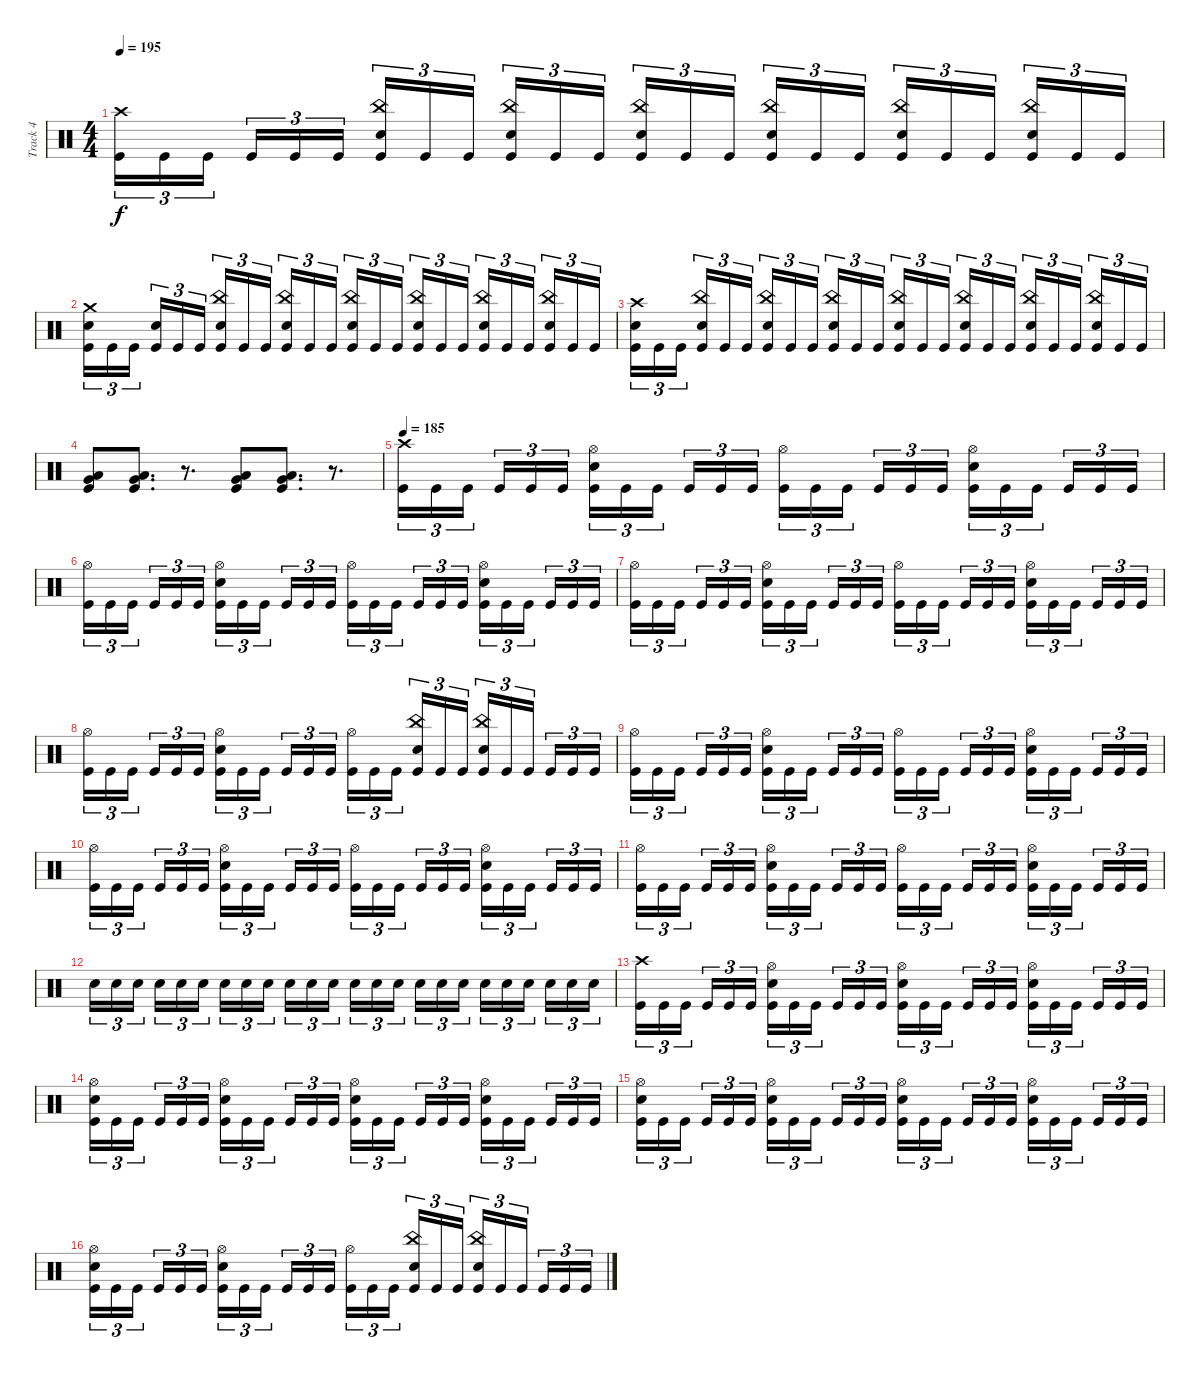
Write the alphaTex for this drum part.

\track ("Track 4" "Track 4") {instrument percussion}
\staff {score}
\articulation defaults
\ts (4 4)
\tempo 195
\clef neutral
\ks c
("Crash high (hit)" "Kick (hit)").16{tu (3 2) dy f} "Kick (hit)".16{tu (3 2)} "Kick (hit)".16{tu (3 2)} "Kick (hit)".16{tu (3 2)} "Kick (hit)".16{tu (3 2)} "Kick (hit)".16{tu (3 2)} ("China (hit)" "Electric Snare (hit)" "Kick (hit)").16{tu (3 2)} "Kick (hit)".16{tu (3 2)} "Kick (hit)".16{tu (3 2)} ("China (hit)" "Electric Snare (hit)" "Kick (hit)").16{tu (3 2)} "Kick (hit)".16{tu (3 2)} "Kick (hit)".16{tu (3 2)} ("China (hit)" "Electric Snare (hit)" "Kick (hit)").16{tu (3 2)} "Kick (hit)".16{tu (3 2)} "Kick (hit)".16{tu (3 2)} ("China (hit)" "Electric Snare (hit)" "Kick (hit)").16{tu (3 2)} "Kick (hit)".16{tu (3 2)} "Kick (hit)".16{tu (3 2)} ("China (hit)" "Electric Snare (hit)" "Kick (hit)").16{tu (3 2)} "Kick (hit)".16{tu (3 2)} "Kick (hit)".16{tu (3 2)} ("China (hit)" "Electric Snare (hit)" "Kick (hit)").16{tu (3 2)} "Kick (hit)".16{tu (3 2)} "Kick (hit)".16{tu (3 2)} |
("Crash medium (hit)" "Electric Snare (hit)" "Kick (hit)").16{tu (3 2)} "Kick (hit)".16{tu (3 2)} "Kick (hit)".16{tu (3 2)} ("Electric Snare (hit)" "Kick (hit)").16{tu (3 2)} "Kick (hit)".16{tu (3 2)} "Kick (hit)".16{tu (3 2)} ("China (hit)" "Electric Snare (hit)" "Kick (hit)").16{tu (3 2)} "Kick (hit)".16{tu (3 2)} "Kick (hit)".16{tu (3 2)} ("China (hit)" "Electric Snare (hit)" "Kick (hit)").16{tu (3 2)} "Kick (hit)".16{tu (3 2)} "Kick (hit)".16{tu (3 2)} ("China (hit)" "Electric Snare (hit)" "Kick (hit)").16{tu (3 2)} "Kick (hit)".16{tu (3 2)} "Kick (hit)".16{tu (3 2)} ("China (hit)" "Electric Snare (hit)" "Kick (hit)").16{tu (3 2)} "Kick (hit)".16{tu (3 2)} "Kick (hit)".16{tu (3 2)} ("China (hit)" "Electric Snare (hit)" "Kick (hit)").16{tu (3 2)} "Kick (hit)".16{tu (3 2)} "Kick (hit)".16{tu (3 2)} ("China (hit)" "Electric Snare (hit)" "Kick (hit)").16{tu (3 2)} "Kick (hit)".16{tu (3 2)} "Kick (hit)".16{tu (3 2)} |
("Crash high (hit)" "Electric Snare (hit)" "Kick (hit)").16{tu (3 2)} "Kick (hit)".16{tu (3 2)} "Kick (hit)".16{tu (3 2)} ("China (hit)" "Electric Snare (hit)" "Kick (hit)").16{tu (3 2)} "Kick (hit)".16{tu (3 2)} "Kick (hit)".16{tu (3 2)} ("China (hit)" "Electric Snare (hit)" "Kick (hit)").16{tu (3 2)} "Kick (hit)".16{tu (3 2)} "Kick (hit)".16{tu (3 2)} ("China (hit)" "Electric Snare (hit)" "Kick (hit)").16{tu (3 2)} "Kick (hit)".16{tu (3 2)} "Kick (hit)".16{tu (3 2)} ("China (hit)" "Electric Snare (hit)" "Kick (hit)").16{tu (3 2)} "Kick (hit)".16{tu (3 2)} "Kick (hit)".16{tu (3 2)} ("China (hit)" "Electric Snare (hit)" "Kick (hit)").16{tu (3 2)} "Kick (hit)".16{tu (3 2)} "Kick (hit)".16{tu (3 2)} ("China (hit)" "Electric Snare (hit)" "Kick (hit)").16{tu (3 2)} "Kick (hit)".16{tu (3 2)} "Kick (hit)".16{tu (3 2)} ("China (hit)" "Electric Snare (hit)" "Kick (hit)").16{tu (3 2)} "Kick (hit)".16{tu (3 2)} "Kick (hit)".16{tu (3 2)} |
("Very Low Tom (hit)" "Low Floor Tom (hit)" "Kick (hit)").8 ("Very Low Tom (hit)" "Low Floor Tom (hit)" "Kick (hit)").8{d} r.8{d} ("Very Low Tom (hit)" "Low Floor Tom (hit)" "Kick (hit)").8 ("Very Low Tom (hit)" "Low Floor Tom (hit)" "Kick (hit)").8{d} r.8{d} |
\tempo 185
("Crash high (hit)" "Kick (hit)").16{tu (3 2)} "Kick (hit)".16{tu (3 2)} "Kick (hit)".16{tu (3 2)} "Kick (hit)".16{tu (3 2)} "Kick (hit)".16{tu (3 2)} "Kick (hit)".16{tu (3 2)} ("Hi-Hat (open)" "Electric Snare (hit)" "Kick (hit)").16{tu (3 2)} "Kick (hit)".16{tu (3 2)} "Kick (hit)".16{tu (3 2)} "Kick (hit)".16{tu (3 2)} "Kick (hit)".16{tu (3 2)} "Kick (hit)".16{tu (3 2)} ("Hi-Hat (open)" "Kick (hit)").16{tu (3 2)} "Kick (hit)".16{tu (3 2)} "Kick (hit)".16{tu (3 2)} "Kick (hit)".16{tu (3 2)} "Kick (hit)".16{tu (3 2)} "Kick (hit)".16{tu (3 2)} ("Hi-Hat (open)" "Electric Snare (hit)" "Kick (hit)").16{tu (3 2)} "Kick (hit)".16{tu (3 2)} "Kick (hit)".16{tu (3 2)} "Kick (hit)".16{tu (3 2)} "Kick (hit)".16{tu (3 2)} "Kick (hit)".16{tu (3 2)} |
("Hi-Hat (open)" "Kick (hit)").16{tu (3 2)} "Kick (hit)".16{tu (3 2)} "Kick (hit)".16{tu (3 2)} "Kick (hit)".16{tu (3 2)} "Kick (hit)".16{tu (3 2)} "Kick (hit)".16{tu (3 2)} ("Hi-Hat (open)" "Electric Snare (hit)" "Kick (hit)").16{tu (3 2)} "Kick (hit)".16{tu (3 2)} "Kick (hit)".16{tu (3 2)} "Kick (hit)".16{tu (3 2)} "Kick (hit)".16{tu (3 2)} "Kick (hit)".16{tu (3 2)} ("Hi-Hat (open)" "Kick (hit)").16{tu (3 2)} "Kick (hit)".16{tu (3 2)} "Kick (hit)".16{tu (3 2)} "Kick (hit)".16{tu (3 2)} "Kick (hit)".16{tu (3 2)} "Kick (hit)".16{tu (3 2)} ("Hi-Hat (open)" "Electric Snare (hit)" "Kick (hit)").16{tu (3 2)} "Kick (hit)".16{tu (3 2)} "Kick (hit)".16{tu (3 2)} "Kick (hit)".16{tu (3 2)} "Kick (hit)".16{tu (3 2)} "Kick (hit)".16{tu (3 2)} |
("Hi-Hat (open)" "Kick (hit)").16{tu (3 2)} "Kick (hit)".16{tu (3 2)} "Kick (hit)".16{tu (3 2)} "Kick (hit)".16{tu (3 2)} "Kick (hit)".16{tu (3 2)} "Kick (hit)".16{tu (3 2)} ("Hi-Hat (open)" "Electric Snare (hit)" "Kick (hit)").16{tu (3 2)} "Kick (hit)".16{tu (3 2)} "Kick (hit)".16{tu (3 2)} "Kick (hit)".16{tu (3 2)} "Kick (hit)".16{tu (3 2)} "Kick (hit)".16{tu (3 2)} ("Hi-Hat (open)" "Kick (hit)").16{tu (3 2)} "Kick (hit)".16{tu (3 2)} "Kick (hit)".16{tu (3 2)} "Kick (hit)".16{tu (3 2)} "Kick (hit)".16{tu (3 2)} "Kick (hit)".16{tu (3 2)} ("Hi-Hat (open)" "Electric Snare (hit)" "Kick (hit)").16{tu (3 2)} "Kick (hit)".16{tu (3 2)} "Kick (hit)".16{tu (3 2)} "Kick (hit)".16{tu (3 2)} "Kick (hit)".16{tu (3 2)} "Kick (hit)".16{tu (3 2)} |
("Hi-Hat (open)" "Kick (hit)").16{tu (3 2)} "Kick (hit)".16{tu (3 2)} "Kick (hit)".16{tu (3 2)} "Kick (hit)".16{tu (3 2)} "Kick (hit)".16{tu (3 2)} "Kick (hit)".16{tu (3 2)} ("Hi-Hat (open)" "Electric Snare (hit)" "Kick (hit)").16{tu (3 2)} "Kick (hit)".16{tu (3 2)} "Kick (hit)".16{tu (3 2)} "Kick (hit)".16{tu (3 2)} "Kick (hit)".16{tu (3 2)} "Kick (hit)".16{tu (3 2)} ("Hi-Hat (open)" "Kick (hit)").16{tu (3 2)} "Kick (hit)".16{tu (3 2)} "Kick (hit)".16{tu (3 2)} ("China (hit)" "Electric Snare (hit)" "Kick (hit)").16{tu (3 2)} "Kick (hit)".16{tu (3 2)} "Kick (hit)".16{tu (3 2)} ("China (hit)" "Electric Snare (hit)" "Kick (hit)").16{tu (3 2)} "Kick (hit)".16{tu (3 2)} "Kick (hit)".16{tu (3 2)} "Kick (hit)".16{tu (3 2)} "Kick (hit)".16{tu (3 2)} "Kick (hit)".16{tu (3 2)} |
("Hi-Hat (open)" "Kick (hit)").16{tu (3 2)} "Kick (hit)".16{tu (3 2)} "Kick (hit)".16{tu (3 2)} "Kick (hit)".16{tu (3 2)} "Kick (hit)".16{tu (3 2)} "Kick (hit)".16{tu (3 2)} ("Hi-Hat (open)" "Electric Snare (hit)" "Kick (hit)").16{tu (3 2)} "Kick (hit)".16{tu (3 2)} "Kick (hit)".16{tu (3 2)} "Kick (hit)".16{tu (3 2)} "Kick (hit)".16{tu (3 2)} "Kick (hit)".16{tu (3 2)} ("Hi-Hat (open)" "Kick (hit)").16{tu (3 2)} "Kick (hit)".16{tu (3 2)} "Kick (hit)".16{tu (3 2)} "Kick (hit)".16{tu (3 2)} "Kick (hit)".16{tu (3 2)} "Kick (hit)".16{tu (3 2)} ("Hi-Hat (open)" "Electric Snare (hit)" "Kick (hit)").16{tu (3 2)} "Kick (hit)".16{tu (3 2)} "Kick (hit)".16{tu (3 2)} "Kick (hit)".16{tu (3 2)} "Kick (hit)".16{tu (3 2)} "Kick (hit)".16{tu (3 2)} |
("Hi-Hat (open)" "Kick (hit)").16{tu (3 2)} "Kick (hit)".16{tu (3 2)} "Kick (hit)".16{tu (3 2)} "Kick (hit)".16{tu (3 2)} "Kick (hit)".16{tu (3 2)} "Kick (hit)".16{tu (3 2)} ("Hi-Hat (open)" "Electric Snare (hit)" "Kick (hit)").16{tu (3 2)} "Kick (hit)".16{tu (3 2)} "Kick (hit)".16{tu (3 2)} "Kick (hit)".16{tu (3 2)} "Kick (hit)".16{tu (3 2)} "Kick (hit)".16{tu (3 2)} ("Hi-Hat (open)" "Kick (hit)").16{tu (3 2)} "Kick (hit)".16{tu (3 2)} "Kick (hit)".16{tu (3 2)} "Kick (hit)".16{tu (3 2)} "Kick (hit)".16{tu (3 2)} "Kick (hit)".16{tu (3 2)} ("Hi-Hat (open)" "Electric Snare (hit)" "Kick (hit)").16{tu (3 2)} "Kick (hit)".16{tu (3 2)} "Kick (hit)".16{tu (3 2)} "Kick (hit)".16{tu (3 2)} "Kick (hit)".16{tu (3 2)} "Kick (hit)".16{tu (3 2)} |
("Hi-Hat (open)" "Kick (hit)").16{tu (3 2)} "Kick (hit)".16{tu (3 2)} "Kick (hit)".16{tu (3 2)} "Kick (hit)".16{tu (3 2)} "Kick (hit)".16{tu (3 2)} "Kick (hit)".16{tu (3 2)} ("Hi-Hat (open)" "Electric Snare (hit)" "Kick (hit)").16{tu (3 2)} "Kick (hit)".16{tu (3 2)} "Kick (hit)".16{tu (3 2)} "Kick (hit)".16{tu (3 2)} "Kick (hit)".16{tu (3 2)} "Kick (hit)".16{tu (3 2)} ("Hi-Hat (open)" "Kick (hit)").16{tu (3 2)} "Kick (hit)".16{tu (3 2)} "Kick (hit)".16{tu (3 2)} "Kick (hit)".16{tu (3 2)} "Kick (hit)".16{tu (3 2)} "Kick (hit)".16{tu (3 2)} ("Hi-Hat (open)" "Electric Snare (hit)" "Kick (hit)").16{tu (3 2)} "Kick (hit)".16{tu (3 2)} "Kick (hit)".16{tu (3 2)} "Kick (hit)".16{tu (3 2)} "Kick (hit)".16{tu (3 2)} "Kick (hit)".16{tu (3 2)} |
"Electric Snare (hit)".16{tu (3 2)} "Electric Snare (hit)".16{tu (3 2)} "Electric Snare (hit)".16{tu (3 2)} "Electric Snare (hit)".16{tu (3 2)} "Electric Snare (hit)".16{tu (3 2)} "Electric Snare (hit)".16{tu (3 2)} "Electric Snare (hit)".16{tu (3 2)} "Electric Snare (hit)".16{tu (3 2)} "Electric Snare (hit)".16{tu (3 2)} "Electric Snare (hit)".16{tu (3 2)} "Electric Snare (hit)".16{tu (3 2)} "Electric Snare (hit)".16{tu (3 2)} "Electric Snare (hit)".16{tu (3 2)} "Electric Snare (hit)".16{tu (3 2)} "Electric Snare (hit)".16{tu (3 2)} "Electric Snare (hit)".16{tu (3 2)} "Electric Snare (hit)".16{tu (3 2)} "Electric Snare (hit)".16{tu (3 2)} "Electric Snare (hit)".16{tu (3 2)} "Electric Snare (hit)".16{tu (3 2)} "Electric Snare (hit)".16{tu (3 2)} "Electric Snare (hit)".16{tu (3 2)} "Electric Snare (hit)".16{tu (3 2)} "Electric Snare (hit)".16{tu (3 2)} |
("Crash high (hit)" "Kick (hit)").16{tu (3 2)} "Kick (hit)".16{tu (3 2)} "Kick (hit)".16{tu (3 2)} "Kick (hit)".16{tu (3 2)} "Kick (hit)".16{tu (3 2)} "Kick (hit)".16{tu (3 2)} ("Hi-Hat (open)" "Electric Snare (hit)" "Kick (hit)").16{tu (3 2)} "Kick (hit)".16{tu (3 2)} "Kick (hit)".16{tu (3 2)} "Kick (hit)".16{tu (3 2)} "Kick (hit)".16{tu (3 2)} "Kick (hit)".16{tu (3 2)} ("Hi-Hat (open)" "Electric Snare (hit)" "Kick (hit)").16{tu (3 2)} "Kick (hit)".16{tu (3 2)} "Kick (hit)".16{tu (3 2)} "Kick (hit)".16{tu (3 2)} "Kick (hit)".16{tu (3 2)} "Kick (hit)".16{tu (3 2)} ("Hi-Hat (open)" "Electric Snare (hit)" "Kick (hit)").16{tu (3 2)} "Kick (hit)".16{tu (3 2)} "Kick (hit)".16{tu (3 2)} "Kick (hit)".16{tu (3 2)} "Kick (hit)".16{tu (3 2)} "Kick (hit)".16{tu (3 2)} |
("Hi-Hat (open)" "Electric Snare (hit)" "Kick (hit)").16{tu (3 2)} "Kick (hit)".16{tu (3 2)} "Kick (hit)".16{tu (3 2)} "Kick (hit)".16{tu (3 2)} "Kick (hit)".16{tu (3 2)} "Kick (hit)".16{tu (3 2)} ("Hi-Hat (open)" "Electric Snare (hit)" "Kick (hit)").16{tu (3 2)} "Kick (hit)".16{tu (3 2)} "Kick (hit)".16{tu (3 2)} "Kick (hit)".16{tu (3 2)} "Kick (hit)".16{tu (3 2)} "Kick (hit)".16{tu (3 2)} ("Hi-Hat (open)" "Electric Snare (hit)" "Kick (hit)").16{tu (3 2)} "Kick (hit)".16{tu (3 2)} "Kick (hit)".16{tu (3 2)} "Kick (hit)".16{tu (3 2)} "Kick (hit)".16{tu (3 2)} "Kick (hit)".16{tu (3 2)} ("Hi-Hat (open)" "Electric Snare (hit)" "Kick (hit)").16{tu (3 2)} "Kick (hit)".16{tu (3 2)} "Kick (hit)".16{tu (3 2)} "Kick (hit)".16{tu (3 2)} "Kick (hit)".16{tu (3 2)} "Kick (hit)".16{tu (3 2)} |
("Hi-Hat (open)" "Electric Snare (hit)" "Kick (hit)").16{tu (3 2)} "Kick (hit)".16{tu (3 2)} "Kick (hit)".16{tu (3 2)} "Kick (hit)".16{tu (3 2)} "Kick (hit)".16{tu (3 2)} "Kick (hit)".16{tu (3 2)} ("Hi-Hat (open)" "Electric Snare (hit)" "Kick (hit)").16{tu (3 2)} "Kick (hit)".16{tu (3 2)} "Kick (hit)".16{tu (3 2)} "Kick (hit)".16{tu (3 2)} "Kick (hit)".16{tu (3 2)} "Kick (hit)".16{tu (3 2)} ("Hi-Hat (open)" "Electric Snare (hit)" "Kick (hit)").16{tu (3 2)} "Kick (hit)".16{tu (3 2)} "Kick (hit)".16{tu (3 2)} "Kick (hit)".16{tu (3 2)} "Kick (hit)".16{tu (3 2)} "Kick (hit)".16{tu (3 2)} ("Hi-Hat (open)" "Electric Snare (hit)" "Kick (hit)").16{tu (3 2)} "Kick (hit)".16{tu (3 2)} "Kick (hit)".16{tu (3 2)} "Kick (hit)".16{tu (3 2)} "Kick (hit)".16{tu (3 2)} "Kick (hit)".16{tu (3 2)} |
("Hi-Hat (open)" "Electric Snare (hit)" "Kick (hit)").16{tu (3 2)} "Kick (hit)".16{tu (3 2)} "Kick (hit)".16{tu (3 2)} "Kick (hit)".16{tu (3 2)} "Kick (hit)".16{tu (3 2)} "Kick (hit)".16{tu (3 2)} ("Hi-Hat (open)" "Electric Snare (hit)" "Kick (hit)").16{tu (3 2)} "Kick (hit)".16{tu (3 2)} "Kick (hit)".16{tu (3 2)} "Kick (hit)".16{tu (3 2)} "Kick (hit)".16{tu (3 2)} "Kick (hit)".16{tu (3 2)} ("Hi-Hat (open)" "Kick (hit)").16{tu (3 2)} "Kick (hit)".16{tu (3 2)} "Kick (hit)".16{tu (3 2)} ("China (hit)" "Electric Snare (hit)" "Kick (hit)").16{tu (3 2)} "Kick (hit)".16{tu (3 2)} "Kick (hit)".16{tu (3 2)} ("China (hit)" "Electric Snare (hit)" "Kick (hit)").16{tu (3 2)} "Kick (hit)".16{tu (3 2)} "Kick (hit)".16{tu (3 2)} "Kick (hit)".16{tu (3 2)} "Kick (hit)".16{tu (3 2)} "Kick (hit)".16{tu (3 2)}
